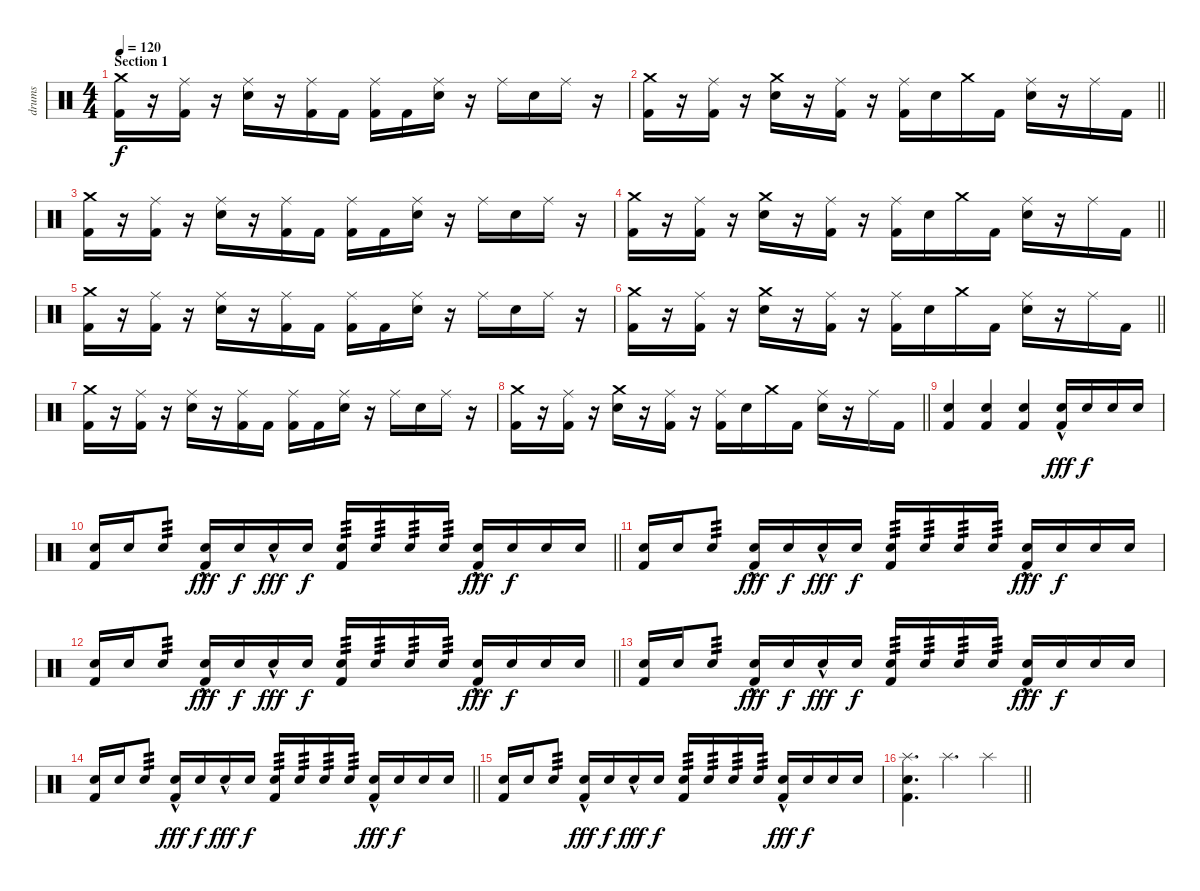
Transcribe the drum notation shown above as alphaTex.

\track ("drums" "drums") {instrument percussion}
\staff {score}
\articulation defaults
\ts (4 4)
\section ("" "Section 1")
\tempo 120
\clef neutral
\ks c
("Crash medium (hit)" "Kick (hit) 2").16{dy f} r.16 ("Ride (middle)" "Kick (hit) 2").16 r.16 ("Ride (middle)" "Snare (hit) 2").16 r.16 ("Ride (middle)" "Kick (hit) 2").16 "Kick (hit) 2".16 ("Ride (middle)" "Kick (hit) 2").16 "Kick (hit) 2".16 ("Ride (middle)" "Snare (hit) 2").16 r.16 "Ride (middle)".16 "Snare (hit) 2".16 "Ride (middle)".16 r.16 |
\barLineRight lightlight
("Crash medium (hit)" "Kick (hit) 2").16 r.16 ("Ride (middle)" "Kick (hit) 2").16 r.16 ("Crash medium (hit)" "Snare (hit) 2").16 r.16 ("Ride (middle)" "Kick (hit) 2").16 r.16 ("Ride (middle)" "Kick (hit) 2").16 "Snare (hit) 2".16 "Crash medium (hit)".16 "Kick (hit) 2".16 ("Ride (middle)" "Snare (hit) 2").16 r.16 "Ride (middle)".16 "Kick (hit) 2".16 |
("Crash medium (hit)" "Kick (hit) 2").16 r.16 ("Ride (middle)" "Kick (hit) 2").16 r.16 ("Ride (middle)" "Snare (hit) 2").16 r.16 ("Ride (middle)" "Kick (hit) 2").16 "Kick (hit) 2".16 ("Ride (middle)" "Kick (hit) 2").16 "Kick (hit) 2".16 ("Ride (middle)" "Snare (hit) 2").16 r.16 "Ride (middle)".16 "Snare (hit) 2".16 "Ride (middle)".16 r.16 |
\barLineRight lightlight
("Crash medium (hit)" "Kick (hit) 2").16 r.16 ("Ride (middle)" "Kick (hit) 2").16 r.16 ("Crash medium (hit)" "Snare (hit) 2").16 r.16 ("Ride (middle)" "Kick (hit) 2").16 r.16 ("Ride (middle)" "Kick (hit) 2").16 "Snare (hit) 2".16 "Crash medium (hit)".16 "Kick (hit) 2".16 ("Ride (middle)" "Snare (hit) 2").16 r.16 "Ride (middle)".16 "Kick (hit) 2".16 |
("Crash medium (hit)" "Kick (hit) 2").16 r.16 ("Ride (middle)" "Kick (hit) 2").16 r.16 ("Ride (middle)" "Snare (hit) 2").16 r.16 ("Ride (middle)" "Kick (hit) 2").16 "Kick (hit) 2".16 ("Ride (middle)" "Kick (hit) 2").16 "Kick (hit) 2".16 ("Ride (middle)" "Snare (hit) 2").16 r.16 "Ride (middle)".16 "Snare (hit) 2".16 "Ride (middle)".16 r.16 |
\barLineRight lightlight
("Crash medium (hit)" "Kick (hit) 2").16 r.16 ("Ride (middle)" "Kick (hit) 2").16 r.16 ("Crash medium (hit)" "Snare (hit) 2").16 r.16 ("Ride (middle)" "Kick (hit) 2").16 r.16 ("Ride (middle)" "Kick (hit) 2").16 "Snare (hit) 2".16 "Crash medium (hit)".16 "Kick (hit) 2".16 ("Ride (middle)" "Snare (hit) 2").16 r.16 "Ride (middle)".16 "Kick (hit) 2".16 |
("Crash medium (hit)" "Kick (hit) 2").16 r.16 ("Ride (middle)" "Kick (hit) 2").16 r.16 ("Ride (middle)" "Snare (hit) 2").16 r.16 ("Ride (middle)" "Kick (hit) 2").16 "Kick (hit) 2".16 ("Ride (middle)" "Kick (hit) 2").16 "Kick (hit) 2".16 ("Ride (middle)" "Snare (hit) 2").16 r.16 "Ride (middle)".16 "Snare (hit) 2".16 "Ride (middle)".16 r.16 |
\barLineRight lightlight
("Crash medium (hit)" "Kick (hit) 2").16 r.16 ("Ride (middle)" "Kick (hit) 2").16 r.16 ("Crash medium (hit)" "Snare (hit) 2").16 r.16 ("Ride (middle)" "Kick (hit) 2").16 r.16 ("Ride (middle)" "Kick (hit) 2").16 "Snare (hit) 2".16 "Crash medium (hit)".16 "Kick (hit) 2".16 ("Ride (middle)" "Snare (hit) 2").16 r.16 "Ride (middle)".16 "Kick (hit) 2".16 |
("Snare (hit) 2" "Kick (hit) 2").4 ("Snare (hit) 2" "Kick (hit) 2").4 ("Snare (hit) 2" "Kick (hit) 2").4 ("Snare (hit) 2"{hac} "Kick (hit) 2").16{dy fff} "Snare (hit) 2".16{dy f} "Snare (hit) 2".16 "Snare (hit) 2".16 |
\barLineRight lightlight
("Snare (hit) 2" "Kick (hit) 2").16 "Snare (hit) 2".16 "Snare (hit) 2".8{tp 3} ("Snare (hit) 2"{hac} "Kick (hit) 2").16{dy fff} "Snare (hit) 2".16{dy f} "Snare (hit) 2"{hac}.16{dy fff} "Snare (hit) 2".16{dy f} ("Snare (hit) 2" "Kick (hit) 2").16{tp 3} "Snare (hit) 2".16{tp 3} "Snare (hit) 2".16{tp 3} "Snare (hit) 2".16{tp 3} ("Snare (hit) 2"{hac} "Kick (hit) 2").16{dy fff} "Snare (hit) 2".16{dy f} "Snare (hit) 2".16 "Snare (hit) 2".16 |
("Snare (hit) 2" "Kick (hit) 2").16 "Snare (hit) 2".16 "Snare (hit) 2".8{tp 3} ("Snare (hit) 2"{hac} "Kick (hit) 2").16{dy fff} "Snare (hit) 2".16{dy f} "Snare (hit) 2"{hac}.16{dy fff} "Snare (hit) 2".16{dy f} ("Snare (hit) 2" "Kick (hit) 2").16{tp 3} "Snare (hit) 2".16{tp 3} "Snare (hit) 2".16{tp 3} "Snare (hit) 2".16{tp 3} ("Snare (hit) 2"{hac} "Kick (hit) 2").16{dy fff} "Snare (hit) 2".16{dy f} "Snare (hit) 2".16 "Snare (hit) 2".16 |
\barLineRight lightlight
("Snare (hit) 2" "Kick (hit) 2").16 "Snare (hit) 2".16 "Snare (hit) 2".8{tp 3} ("Snare (hit) 2"{hac} "Kick (hit) 2").16{dy fff} "Snare (hit) 2".16{dy f} "Snare (hit) 2"{hac}.16{dy fff} "Snare (hit) 2".16{dy f} ("Snare (hit) 2" "Kick (hit) 2").16{tp 3} "Snare (hit) 2".16{tp 3} "Snare (hit) 2".16{tp 3} "Snare (hit) 2".16{tp 3} ("Snare (hit) 2"{hac} "Kick (hit) 2").16{dy fff} "Snare (hit) 2".16{dy f} "Snare (hit) 2".16 "Snare (hit) 2".16 |
("Snare (hit) 2" "Kick (hit) 2").16 "Snare (hit) 2".16 "Snare (hit) 2".8{tp 3} ("Snare (hit) 2"{hac} "Kick (hit) 2").16{dy fff} "Snare (hit) 2".16{dy f} "Snare (hit) 2"{hac}.16{dy fff} "Snare (hit) 2".16{dy f} ("Snare (hit) 2" "Kick (hit) 2").16{tp 3} "Snare (hit) 2".16{tp 3} "Snare (hit) 2".16{tp 3} "Snare (hit) 2".16{tp 3} ("Snare (hit) 2"{hac} "Kick (hit) 2").16{dy fff} "Snare (hit) 2".16{dy f} "Snare (hit) 2".16 "Snare (hit) 2".16 |
\barLineRight lightlight
("Snare (hit) 2" "Kick (hit) 2").16 "Snare (hit) 2".16 "Snare (hit) 2".8{tp 3} ("Snare (hit) 2"{hac} "Kick (hit) 2").16{dy fff} "Snare (hit) 2".16{dy f} "Snare (hit) 2"{hac}.16{dy fff} "Snare (hit) 2".16{dy f} ("Snare (hit) 2" "Kick (hit) 2").16{tp 3} "Snare (hit) 2".16{tp 3} "Snare (hit) 2".16{tp 3} "Snare (hit) 2".16{tp 3} ("Snare (hit) 2"{hac} "Kick (hit) 2").16{dy fff} "Snare (hit) 2".16{dy f} "Snare (hit) 2".16 "Snare (hit) 2".16 |
("Snare (hit) 2" "Kick (hit) 2").16 "Snare (hit) 2".16 "Snare (hit) 2".8{tp 3} ("Snare (hit) 2"{hac} "Kick (hit) 2").16{dy fff} "Snare (hit) 2".16{dy f} "Snare (hit) 2"{hac}.16{dy fff} "Snare (hit) 2".16{dy f} ("Snare (hit) 2" "Kick (hit) 2").16{tp 3} "Snare (hit) 2".16{tp 3} "Snare (hit) 2".16{tp 3} "Snare (hit) 2".16{tp 3} ("Snare (hit) 2"{hac} "Kick (hit) 2").16{dy fff} "Snare (hit) 2".16{dy f} "Snare (hit) 2".16 "Snare (hit) 2".16 |
\barLineRight lightlight
("Splash (hit)" "Snare (hit) 2" "Kick (hit) 2").4{d} "Splash (hit)".4{d} "Splash (hit)".4
